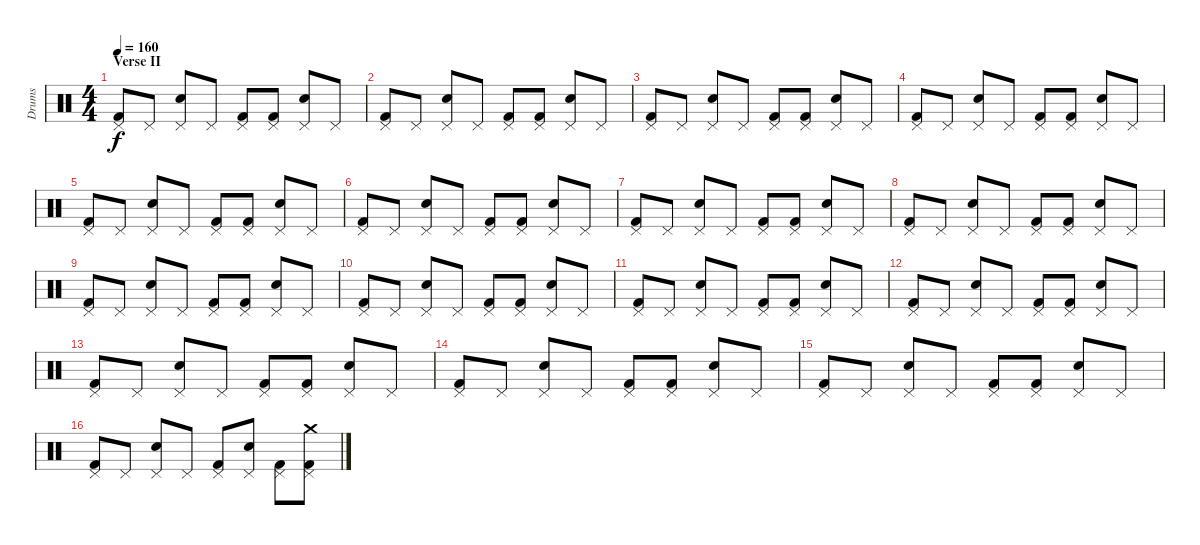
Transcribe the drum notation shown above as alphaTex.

\track ("Drums" "Drums") {instrument percussion}
\staff {score}
\articulation defaults
\ts (4 4)
\section ("" "Verse II")
\tempo 160
\clef neutral
\ks c
("Kick (hit) 2" "Pedal Hi-Hat (hit)").8{dy f} "Pedal Hi-Hat (hit)".8 ("Electric Snare (hit)" "Pedal Hi-Hat (hit)").8 "Pedal Hi-Hat (hit)".8 ("Kick (hit) 2" "Pedal Hi-Hat (hit)").8 ("Kick (hit) 2" "Pedal Hi-Hat (hit)").8 ("Electric Snare (hit)" "Pedal Hi-Hat (hit)").8 "Pedal Hi-Hat (hit)".8 |
("Kick (hit) 2" "Pedal Hi-Hat (hit)").8 "Pedal Hi-Hat (hit)".8 ("Electric Snare (hit)" "Pedal Hi-Hat (hit)").8 "Pedal Hi-Hat (hit)".8 ("Kick (hit) 2" "Pedal Hi-Hat (hit)").8 ("Kick (hit) 2" "Pedal Hi-Hat (hit)").8 ("Electric Snare (hit)" "Pedal Hi-Hat (hit)").8 "Pedal Hi-Hat (hit)".8 |
("Kick (hit) 2" "Pedal Hi-Hat (hit)").8 "Pedal Hi-Hat (hit)".8 ("Electric Snare (hit)" "Pedal Hi-Hat (hit)").8 "Pedal Hi-Hat (hit)".8 ("Kick (hit) 2" "Pedal Hi-Hat (hit)").8 ("Kick (hit) 2" "Pedal Hi-Hat (hit)").8 ("Electric Snare (hit)" "Pedal Hi-Hat (hit)").8 "Pedal Hi-Hat (hit)".8 |
("Kick (hit) 2" "Pedal Hi-Hat (hit)").8 "Pedal Hi-Hat (hit)".8 ("Electric Snare (hit)" "Pedal Hi-Hat (hit)").8 "Pedal Hi-Hat (hit)".8 ("Kick (hit) 2" "Pedal Hi-Hat (hit)").8 ("Kick (hit) 2" "Pedal Hi-Hat (hit)").8 ("Electric Snare (hit)" "Pedal Hi-Hat (hit)").8 "Pedal Hi-Hat (hit)".8 |
("Kick (hit) 2" "Pedal Hi-Hat (hit)").8 "Pedal Hi-Hat (hit)".8 ("Electric Snare (hit)" "Pedal Hi-Hat (hit)").8 "Pedal Hi-Hat (hit)".8 ("Kick (hit) 2" "Pedal Hi-Hat (hit)").8 ("Kick (hit) 2" "Pedal Hi-Hat (hit)").8 ("Electric Snare (hit)" "Pedal Hi-Hat (hit)").8 "Pedal Hi-Hat (hit)".8 |
("Kick (hit) 2" "Pedal Hi-Hat (hit)").8 "Pedal Hi-Hat (hit)".8 ("Electric Snare (hit)" "Pedal Hi-Hat (hit)").8 "Pedal Hi-Hat (hit)".8 ("Kick (hit) 2" "Pedal Hi-Hat (hit)").8 ("Kick (hit) 2" "Pedal Hi-Hat (hit)").8 ("Electric Snare (hit)" "Pedal Hi-Hat (hit)").8 "Pedal Hi-Hat (hit)".8 |
("Kick (hit) 2" "Pedal Hi-Hat (hit)").8 "Pedal Hi-Hat (hit)".8 ("Electric Snare (hit)" "Pedal Hi-Hat (hit)").8 "Pedal Hi-Hat (hit)".8 ("Kick (hit) 2" "Pedal Hi-Hat (hit)").8 ("Kick (hit) 2" "Pedal Hi-Hat (hit)").8 ("Electric Snare (hit)" "Pedal Hi-Hat (hit)").8 "Pedal Hi-Hat (hit)".8 |
("Kick (hit) 2" "Pedal Hi-Hat (hit)").8 "Pedal Hi-Hat (hit)".8 ("Electric Snare (hit)" "Pedal Hi-Hat (hit)").8 "Pedal Hi-Hat (hit)".8 ("Kick (hit) 2" "Pedal Hi-Hat (hit)").8 ("Kick (hit) 2" "Pedal Hi-Hat (hit)").8 ("Electric Snare (hit)" "Pedal Hi-Hat (hit)").8 "Pedal Hi-Hat (hit)".8 |
("Kick (hit) 2" "Pedal Hi-Hat (hit)").8 "Pedal Hi-Hat (hit)".8 ("Electric Snare (hit)" "Pedal Hi-Hat (hit)").8 "Pedal Hi-Hat (hit)".8 ("Kick (hit) 2" "Pedal Hi-Hat (hit)").8 ("Kick (hit) 2" "Pedal Hi-Hat (hit)").8 ("Electric Snare (hit)" "Pedal Hi-Hat (hit)").8 "Pedal Hi-Hat (hit)".8 |
("Kick (hit) 2" "Pedal Hi-Hat (hit)").8 "Pedal Hi-Hat (hit)".8 ("Electric Snare (hit)" "Pedal Hi-Hat (hit)").8 "Pedal Hi-Hat (hit)".8 ("Kick (hit) 2" "Pedal Hi-Hat (hit)").8 ("Kick (hit) 2" "Pedal Hi-Hat (hit)").8 ("Electric Snare (hit)" "Pedal Hi-Hat (hit)").8 "Pedal Hi-Hat (hit)".8 |
("Kick (hit) 2" "Pedal Hi-Hat (hit)").8 "Pedal Hi-Hat (hit)".8 ("Electric Snare (hit)" "Pedal Hi-Hat (hit)").8 "Pedal Hi-Hat (hit)".8 ("Kick (hit) 2" "Pedal Hi-Hat (hit)").8 ("Kick (hit) 2" "Pedal Hi-Hat (hit)").8 ("Electric Snare (hit)" "Pedal Hi-Hat (hit)").8 "Pedal Hi-Hat (hit)".8 |
("Kick (hit) 2" "Pedal Hi-Hat (hit)").8 "Pedal Hi-Hat (hit)".8 ("Electric Snare (hit)" "Pedal Hi-Hat (hit)").8 "Pedal Hi-Hat (hit)".8 ("Kick (hit) 2" "Pedal Hi-Hat (hit)").8 ("Kick (hit) 2" "Pedal Hi-Hat (hit)").8 ("Electric Snare (hit)" "Pedal Hi-Hat (hit)").8 "Pedal Hi-Hat (hit)".8 |
("Kick (hit) 2" "Pedal Hi-Hat (hit)").8 "Pedal Hi-Hat (hit)".8 ("Electric Snare (hit)" "Pedal Hi-Hat (hit)").8 "Pedal Hi-Hat (hit)".8 ("Kick (hit) 2" "Pedal Hi-Hat (hit)").8 ("Kick (hit) 2" "Pedal Hi-Hat (hit)").8 ("Electric Snare (hit)" "Pedal Hi-Hat (hit)").8 "Pedal Hi-Hat (hit)".8 |
("Kick (hit) 2" "Pedal Hi-Hat (hit)").8 "Pedal Hi-Hat (hit)".8 ("Electric Snare (hit)" "Pedal Hi-Hat (hit)").8 "Pedal Hi-Hat (hit)".8 ("Kick (hit) 2" "Pedal Hi-Hat (hit)").8 ("Kick (hit) 2" "Pedal Hi-Hat (hit)").8 ("Electric Snare (hit)" "Pedal Hi-Hat (hit)").8 "Pedal Hi-Hat (hit)".8 |
("Kick (hit) 2" "Pedal Hi-Hat (hit)").8 "Pedal Hi-Hat (hit)".8 ("Electric Snare (hit)" "Pedal Hi-Hat (hit)").8 "Pedal Hi-Hat (hit)".8 ("Kick (hit) 2" "Pedal Hi-Hat (hit)").8 ("Kick (hit) 2" "Pedal Hi-Hat (hit)").8 ("Electric Snare (hit)" "Pedal Hi-Hat (hit)").8 "Pedal Hi-Hat (hit)".8 |
("Kick (hit) 2" "Pedal Hi-Hat (hit)").8 "Pedal Hi-Hat (hit)".8 ("Electric Snare (hit)" "Pedal Hi-Hat (hit)").8 "Pedal Hi-Hat (hit)".8 ("Kick (hit) 2" "Pedal Hi-Hat (hit)").8 ("Pedal Hi-Hat (hit)" "Electric Snare (hit)").8 ("Kick (hit) 2" "Pedal Hi-Hat (hit)").8 ("Kick (hit) 2" "Pedal Hi-Hat (hit)" "Crash medium (hit)").8
